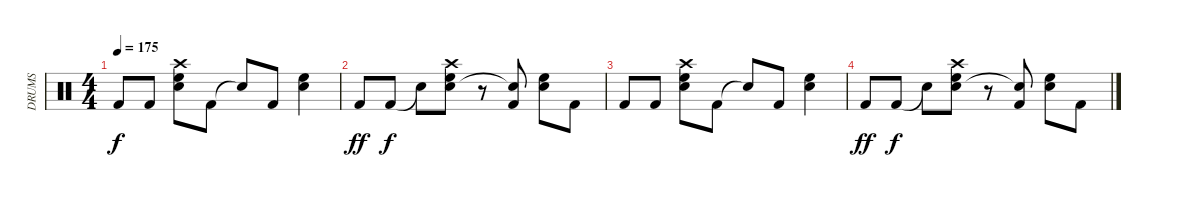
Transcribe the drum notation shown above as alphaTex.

\track ("DRUMS" "DRUMS") {instrument percussion}
\staff {score}
\articulation defaults
\ts (4 4)
\tempo 175
\clef neutral
\ks c "Kick (hit) 2".8{dy f} "Kick (hit) 2".8
("High Floor Tom (hit)" "Electric Snare (hit)" "Crash high (hit)").8 "Kick (hit) 2".8 "Snare (hit)"{t}.8 "Kick (hit) 2".8 ("High Floor Tom (hit)" "Electric Snare (hit)").4 |
"Kick (hit) 2".8{dy ff} "Kick (hit) 2".8{dy f} "Snare (hit)"{t}.8 ("High Floor Tom (hit)" "Electric Snare (hit)" "Crash high (hit)").8 r.8 ("Kick (hit) 2" "Snare (hit)"{t}).8 ("High Floor Tom (hit)" "Electric Snare (hit)").8 "Kick (hit) 2".8 |
"Kick (hit) 2".8 "Kick (hit) 2".8 ("High Floor Tom (hit)" "Electric Snare (hit)" "Crash high (hit)").8 "Kick (hit) 2".8 "Snare (hit)"{t}.8 "Kick (hit) 2".8 ("High Floor Tom (hit)" "Electric Snare (hit)").4 |
"Kick (hit) 2".8{dy ff} "Kick (hit) 2".8{dy f} "Snare (hit)"{t}.8 ("High Floor Tom (hit)" "Electric Snare (hit)" "Crash high (hit)").8 r.8 ("Kick (hit) 2" "Snare (hit)"{t}).8 ("High Floor Tom (hit)" "Electric Snare (hit)").8 "Kick (hit) 2".8
